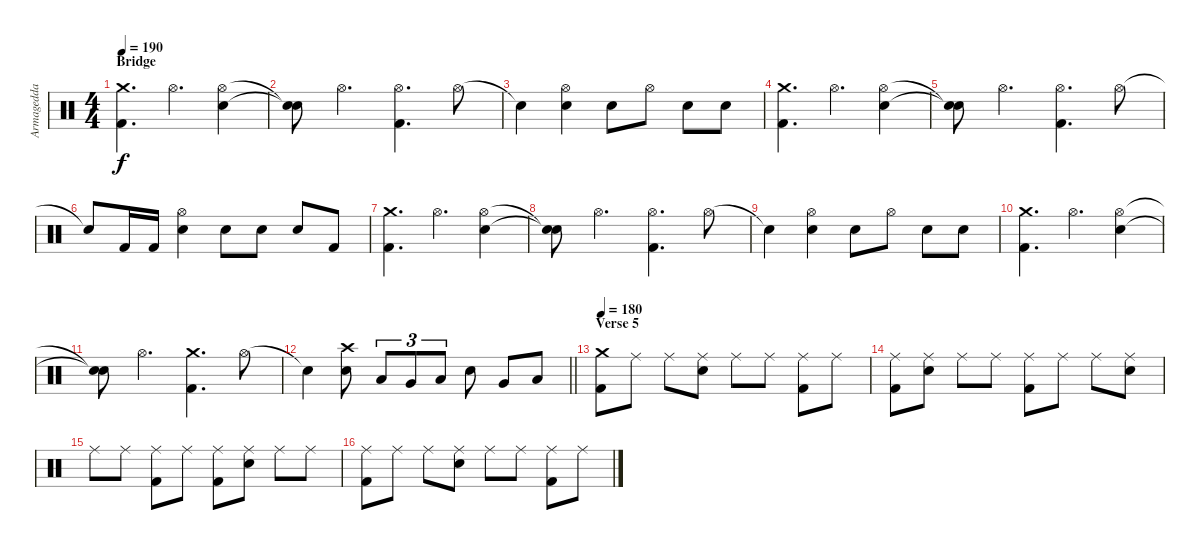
\track ("Armagedda" "Armagedda") {instrument percussion}
\staff {score}
\articulation defaults
\ts (4 4)
\section ("" "Bridge")
\tempo 190
\clef neutral
\ks c
("Crash medium (hit)" "Kick (hit) 2").4{d dy f} "Hi-Hat (open)".4{d} ("Hi-Hat (open)" "Electric Snare (hit)").4 |
("Snare (hit)"{t} "Snare (hit)"{t}).8 "Hi-Hat (open)".4{d} ("Hi-Hat (open)" "Kick (hit) 2").4{d} "Hi-Hat (open)".8 |
"Snare (hit)"{t}.4 ("Hi-Hat (open)" "Electric Snare (hit)").4 "Electric Snare (hit)".8 "Hi-Hat (open)".8 "Electric Snare (hit)".8 "Electric Snare (hit)".8 |
("Crash medium (hit)" "Kick (hit) 2").4{d} "Hi-Hat (open)".4{d} ("Hi-Hat (open)" "Electric Snare (hit)").4 |
("Snare (hit)"{t} "Snare (hit)"{t}).8 "Hi-Hat (open)".4{d} ("Hi-Hat (open)" "Kick (hit) 2").4{d} "Hi-Hat (open)".8 |
"Snare (hit)"{t}.8 "Kick (hit) 2".16 "Kick (hit) 2".16 ("Hi-Hat (open)" "Electric Snare (hit)").4 "Electric Snare (hit)".8 "Electric Snare (hit)".8 "Electric Snare (hit)".8 "Kick (hit) 2".8 |
("Crash medium (hit)" "Kick (hit) 2").4{d} "Hi-Hat (open)".4{d} ("Hi-Hat (open)" "Electric Snare (hit)").4 |
("Snare (hit)"{t} "Snare (hit)"{t}).8 "Hi-Hat (open)".4{d} ("Hi-Hat (open)" "Kick (hit) 2").4{d} "Hi-Hat (open)".8 |
"Snare (hit)"{t}.4 ("Hi-Hat (open)" "Electric Snare (hit)").4 "Electric Snare (hit)".8 "Hi-Hat (open)".8 "Electric Snare (hit)".8 "Electric Snare (hit)".8 |
("Crash medium (hit)" "Kick (hit) 2").4{d} "Hi-Hat (open)".4{d} ("Hi-Hat (open)" "Electric Snare (hit)").4 |
("Snare (hit)"{t} "Snare (hit)"{t}).8 "Hi-Hat (open)".4{d} ("Crash medium (hit)" "Kick (hit) 2").4{d} "Hi-Hat (open)".8 |
\barLineRight lightlight "Snare (hit)"{t}.4
("Crash high (hit)" "Electric Snare (hit)").8 "Low Tom (hit)".8{tu (3 2)} "Very Low Tom (hit)".8{tu (3 2)} "Low Floor Tom (hit)".8{tu (3 2)} "Electric Snare (hit)".8 "Very Low Tom (hit)".8 "Low Floor Tom (hit)".8 |
\section ("" "Verse 5")
\tempo 180
("Crash medium (hit)" "Kick (hit) 2").8 "Ride (middle)".8 "Ride (middle)".8 ("Ride (middle)" "Electric Snare (hit)").8 "Ride (middle)".8 "Ride (middle)".8 ("Ride (middle)" "Kick (hit) 2").8 "Ride (middle)".8 |
("Ride (middle)" "Kick (hit) 2").8 ("Ride (middle)" "Electric Snare (hit)").8 "Ride (middle)".8 "Ride (middle)".8 ("Ride (middle)" "Kick (hit) 2").8 "Ride (middle)".8 "Ride (middle)".8 ("Ride (middle)" "Electric Snare (hit)").8 |
"Ride (middle)".8 "Ride (middle)".8 ("Ride (middle)" "Kick (hit) 2").8 "Ride (middle)".8 ("Ride (middle)" "Kick (hit) 2").8 ("Ride (middle)" "Electric Snare (hit)").8 "Ride (middle)".8 "Ride (middle)".8 |
("Ride (middle)" "Kick (hit) 2").8 "Ride (middle)".8 "Ride (middle)".8 ("Ride (middle)" "Electric Snare (hit)").8 "Ride (middle)".8 "Ride (middle)".8 ("Ride (middle)" "Kick (hit) 2").8 "Ride (middle)".8
